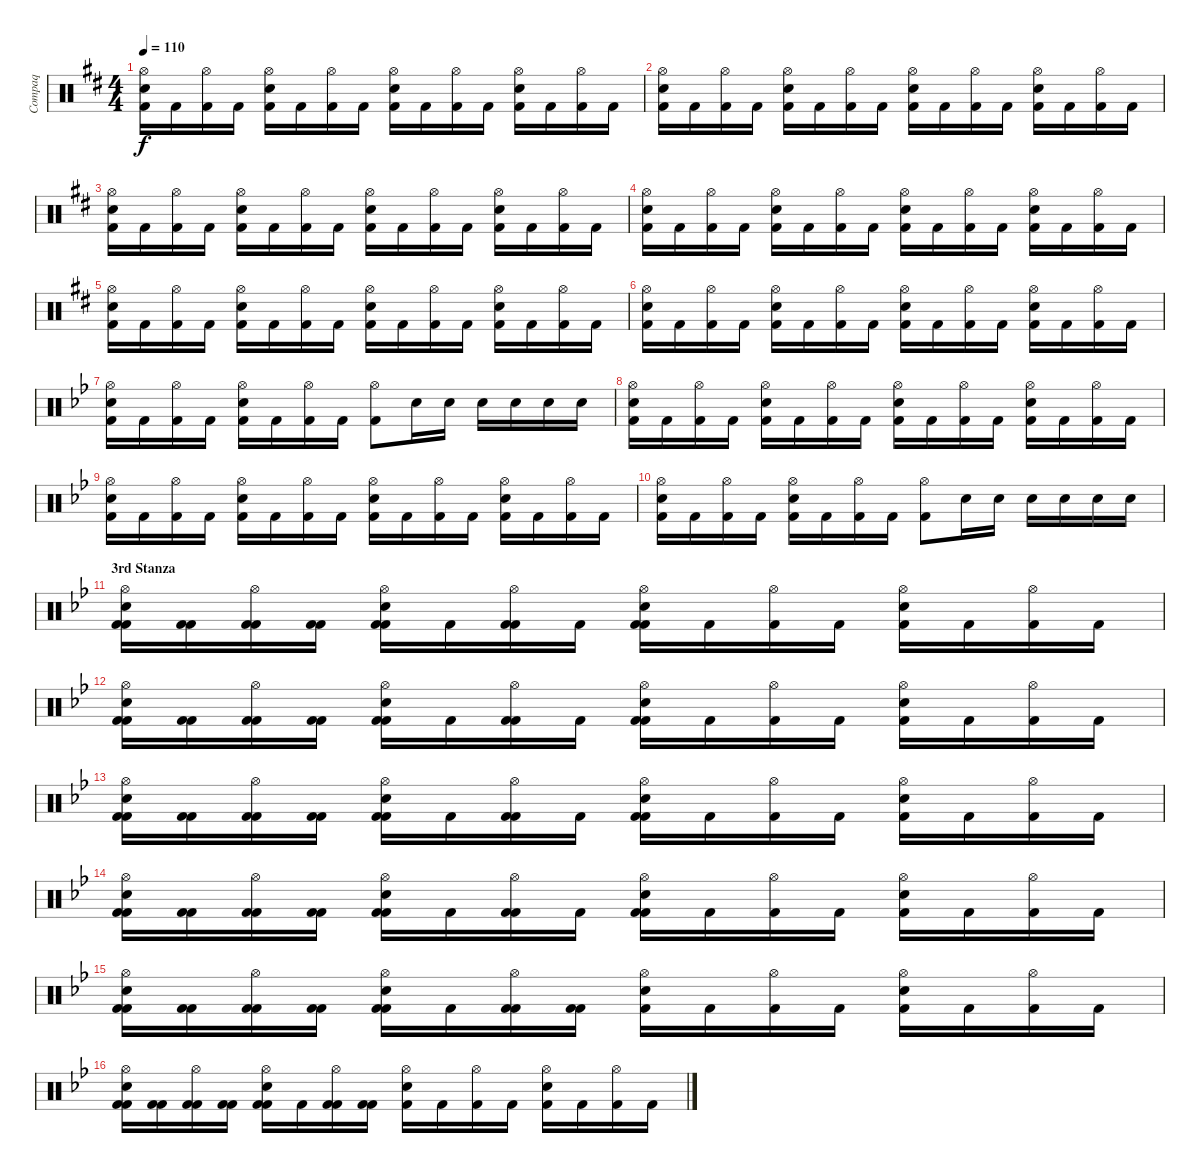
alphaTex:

\track ("Compaq" "Compaq") {instrument percussion}
\staff {score}
\articulation defaults
\ts (4 4)
\tempo 110
\clef neutral
\ks bminor
("Electric Snare (hit)" "Kick (hit) 2" "Hi-Hat (open)").16{dy f} "Kick (hit) 2".16 ("Kick (hit) 2" "Hi-Hat (open)").16 "Kick (hit) 2".16 ("Electric Snare (hit)" "Kick (hit) 2" "Hi-Hat (open)").16 "Kick (hit) 2".16 ("Kick (hit) 2" "Hi-Hat (open)").16 "Kick (hit) 2".16 ("Electric Snare (hit)" "Kick (hit) 2" "Hi-Hat (open)").16 "Kick (hit) 2".16 ("Kick (hit) 2" "Hi-Hat (open)").16 "Kick (hit) 2".16 ("Electric Snare (hit)" "Kick (hit) 2" "Hi-Hat (open)").16 "Kick (hit) 2".16 ("Kick (hit) 2" "Hi-Hat (open)").16 "Kick (hit) 2".16 |
("Electric Snare (hit)" "Kick (hit) 2" "Hi-Hat (open)").16 "Kick (hit) 2".16 ("Kick (hit) 2" "Hi-Hat (open)").16 "Kick (hit) 2".16 ("Electric Snare (hit)" "Kick (hit) 2" "Hi-Hat (open)").16 "Kick (hit) 2".16 ("Kick (hit) 2" "Hi-Hat (open)").16 "Kick (hit) 2".16 ("Electric Snare (hit)" "Kick (hit) 2" "Hi-Hat (open)").16 "Kick (hit) 2".16 ("Kick (hit) 2" "Hi-Hat (open)").16 "Kick (hit) 2".16 ("Electric Snare (hit)" "Kick (hit) 2" "Hi-Hat (open)").16 "Kick (hit) 2".16 ("Kick (hit) 2" "Hi-Hat (open)").16 "Kick (hit) 2".16 |
("Electric Snare (hit)" "Kick (hit) 2" "Hi-Hat (open)").16 "Kick (hit) 2".16 ("Kick (hit) 2" "Hi-Hat (open)").16 "Kick (hit) 2".16 ("Electric Snare (hit)" "Kick (hit) 2" "Hi-Hat (open)").16 "Kick (hit) 2".16 ("Kick (hit) 2" "Hi-Hat (open)").16 "Kick (hit) 2".16 ("Electric Snare (hit)" "Kick (hit) 2" "Hi-Hat (open)").16 "Kick (hit) 2".16 ("Kick (hit) 2" "Hi-Hat (open)").16 "Kick (hit) 2".16 ("Electric Snare (hit)" "Kick (hit) 2" "Hi-Hat (open)").16 "Kick (hit) 2".16 ("Kick (hit) 2" "Hi-Hat (open)").16 "Kick (hit) 2".16 |
("Electric Snare (hit)" "Kick (hit) 2" "Hi-Hat (open)").16 "Kick (hit) 2".16 ("Kick (hit) 2" "Hi-Hat (open)").16 "Kick (hit) 2".16 ("Electric Snare (hit)" "Kick (hit) 2" "Hi-Hat (open)").16 "Kick (hit) 2".16 ("Kick (hit) 2" "Hi-Hat (open)").16 "Kick (hit) 2".16 ("Electric Snare (hit)" "Kick (hit) 2" "Hi-Hat (open)").16 "Kick (hit) 2".16 ("Kick (hit) 2" "Hi-Hat (open)").16 "Kick (hit) 2".16 ("Electric Snare (hit)" "Kick (hit) 2" "Hi-Hat (open)").16 "Kick (hit) 2".16 ("Kick (hit) 2" "Hi-Hat (open)").16 "Kick (hit) 2".16 |
("Electric Snare (hit)" "Kick (hit) 2" "Hi-Hat (open)").16 "Kick (hit) 2".16 ("Kick (hit) 2" "Hi-Hat (open)").16 "Kick (hit) 2".16 ("Electric Snare (hit)" "Kick (hit) 2" "Hi-Hat (open)").16 "Kick (hit) 2".16 ("Kick (hit) 2" "Hi-Hat (open)").16 "Kick (hit) 2".16 ("Electric Snare (hit)" "Kick (hit) 2" "Hi-Hat (open)").16 "Kick (hit) 2".16 ("Kick (hit) 2" "Hi-Hat (open)").16 "Kick (hit) 2".16 ("Electric Snare (hit)" "Kick (hit) 2" "Hi-Hat (open)").16 "Kick (hit) 2".16 ("Kick (hit) 2" "Hi-Hat (open)").16 "Kick (hit) 2".16 |
("Electric Snare (hit)" "Kick (hit) 2" "Hi-Hat (open)").16 "Kick (hit) 2".16 ("Kick (hit) 2" "Hi-Hat (open)").16 "Kick (hit) 2".16 ("Electric Snare (hit)" "Kick (hit) 2" "Hi-Hat (open)").16 "Kick (hit) 2".16 ("Kick (hit) 2" "Hi-Hat (open)").16 "Kick (hit) 2".16 ("Electric Snare (hit)" "Kick (hit) 2" "Hi-Hat (open)").16 "Kick (hit) 2".16 ("Kick (hit) 2" "Hi-Hat (open)").16 "Kick (hit) 2".16 ("Electric Snare (hit)" "Kick (hit) 2" "Hi-Hat (open)").16 "Kick (hit) 2".16 ("Kick (hit) 2" "Hi-Hat (open)").16 "Kick (hit) 2".16 |
\ks bb
("Electric Snare (hit)" "Kick (hit) 2" "Hi-Hat (open)").16 "Kick (hit) 2".16 ("Kick (hit) 2" "Hi-Hat (open)").16 "Kick (hit) 2".16 ("Electric Snare (hit)" "Kick (hit) 2" "Hi-Hat (open)").16 "Kick (hit) 2".16 ("Kick (hit) 2" "Hi-Hat (open)").16 "Kick (hit) 2".16 ("Hi-Hat (open)" "Kick (hit) 2").8 "Electric Snare (hit)".16 "Electric Snare (hit)".16 "Electric Snare (hit)".16 "Electric Snare (hit)".16 "Electric Snare (hit)".16 "Electric Snare (hit)".16 |
("Electric Snare (hit)" "Kick (hit) 2" "Hi-Hat (open)").16 "Kick (hit) 2".16 ("Kick (hit) 2" "Hi-Hat (open)").16 "Kick (hit) 2".16 ("Electric Snare (hit)" "Kick (hit) 2" "Hi-Hat (open)").16 "Kick (hit) 2".16 ("Kick (hit) 2" "Hi-Hat (open)").16 "Kick (hit) 2".16 ("Electric Snare (hit)" "Kick (hit) 2" "Hi-Hat (open)").16 "Kick (hit) 2".16 ("Kick (hit) 2" "Hi-Hat (open)").16 "Kick (hit) 2".16 ("Electric Snare (hit)" "Kick (hit) 2" "Hi-Hat (open)").16 "Kick (hit) 2".16 ("Kick (hit) 2" "Hi-Hat (open)").16 "Kick (hit) 2".16 |
("Electric Snare (hit)" "Kick (hit) 2" "Hi-Hat (open)").16 "Kick (hit) 2".16 ("Kick (hit) 2" "Hi-Hat (open)").16 "Kick (hit) 2".16 ("Electric Snare (hit)" "Kick (hit) 2" "Hi-Hat (open)").16 "Kick (hit) 2".16 ("Kick (hit) 2" "Hi-Hat (open)").16 "Kick (hit) 2".16 ("Electric Snare (hit)" "Kick (hit) 2" "Hi-Hat (open)").16 "Kick (hit) 2".16 ("Kick (hit) 2" "Hi-Hat (open)").16 "Kick (hit) 2".16 ("Electric Snare (hit)" "Kick (hit) 2" "Hi-Hat (open)").16 "Kick (hit) 2".16 ("Kick (hit) 2" "Hi-Hat (open)").16 "Kick (hit) 2".16 |
("Electric Snare (hit)" "Kick (hit) 2" "Hi-Hat (open)").16 "Kick (hit) 2".16 ("Kick (hit) 2" "Hi-Hat (open)").16 "Kick (hit) 2".16 ("Electric Snare (hit)" "Kick (hit) 2" "Hi-Hat (open)").16 "Kick (hit) 2".16 ("Kick (hit) 2" "Hi-Hat (open)").16 "Kick (hit) 2".16 ("Hi-Hat (open)" "Kick (hit) 2").8 "Electric Snare (hit)".16 "Electric Snare (hit)".16 "Electric Snare (hit)".16 "Electric Snare (hit)".16 "Electric Snare (hit)".16 "Electric Snare (hit)".16 |
\section ("" "3rd Stanza")
("Electric Snare (hit)" "Kick (hit) 2" "Hi-Hat (open)" "Kick (hit) 2").16 ("Kick (hit) 2" "Kick (hit) 2").16 ("Kick (hit) 2" "Hi-Hat (open)" "Kick (hit) 2").16 ("Kick (hit) 2" "Kick (hit) 2").16 ("Electric Snare (hit)" "Kick (hit) 2" "Hi-Hat (open)" "Kick (hit) 2").16 "Kick (hit) 2".16 ("Kick (hit) 2" "Hi-Hat (open)" "Kick (hit) 2").16 "Kick (hit) 2".16 ("Electric Snare (hit)" "Kick (hit) 2" "Hi-Hat (open)" "Kick (hit) 2").16 "Kick (hit) 2".16 ("Kick (hit) 2" "Hi-Hat (open)").16 "Kick (hit) 2".16 ("Electric Snare (hit)" "Kick (hit) 2" "Hi-Hat (open)").16 "Kick (hit) 2".16 ("Kick (hit) 2" "Hi-Hat (open)").16 "Kick (hit) 2".16 |
("Electric Snare (hit)" "Kick (hit) 2" "Hi-Hat (open)" "Kick (hit) 2").16 ("Kick (hit) 2" "Kick (hit) 2").16 ("Kick (hit) 2" "Hi-Hat (open)" "Kick (hit) 2").16 ("Kick (hit) 2" "Kick (hit) 2").16 ("Electric Snare (hit)" "Kick (hit) 2" "Hi-Hat (open)" "Kick (hit) 2").16 "Kick (hit) 2".16 ("Kick (hit) 2" "Hi-Hat (open)" "Kick (hit) 2").16 "Kick (hit) 2".16 ("Electric Snare (hit)" "Kick (hit) 2" "Hi-Hat (open)" "Kick (hit) 2").16 "Kick (hit) 2".16 ("Kick (hit) 2" "Hi-Hat (open)").16 "Kick (hit) 2".16 ("Electric Snare (hit)" "Kick (hit) 2" "Hi-Hat (open)").16 "Kick (hit) 2".16 ("Kick (hit) 2" "Hi-Hat (open)").16 "Kick (hit) 2".16 |
("Electric Snare (hit)" "Kick (hit) 2" "Hi-Hat (open)" "Kick (hit) 2").16 ("Kick (hit) 2" "Kick (hit) 2").16 ("Kick (hit) 2" "Hi-Hat (open)" "Kick (hit) 2").16 ("Kick (hit) 2" "Kick (hit) 2").16 ("Electric Snare (hit)" "Kick (hit) 2" "Hi-Hat (open)" "Kick (hit) 2").16 "Kick (hit) 2".16 ("Kick (hit) 2" "Hi-Hat (open)" "Kick (hit) 2").16 "Kick (hit) 2".16 ("Electric Snare (hit)" "Kick (hit) 2" "Hi-Hat (open)" "Kick (hit) 2").16 "Kick (hit) 2".16 ("Kick (hit) 2" "Hi-Hat (open)").16 "Kick (hit) 2".16 ("Electric Snare (hit)" "Kick (hit) 2" "Hi-Hat (open)").16 "Kick (hit) 2".16 ("Kick (hit) 2" "Hi-Hat (open)").16 "Kick (hit) 2".16 |
("Electric Snare (hit)" "Kick (hit) 2" "Hi-Hat (open)" "Kick (hit) 2").16 ("Kick (hit) 2" "Kick (hit) 2").16 ("Kick (hit) 2" "Hi-Hat (open)" "Kick (hit) 2").16 ("Kick (hit) 2" "Kick (hit) 2").16 ("Electric Snare (hit)" "Kick (hit) 2" "Hi-Hat (open)" "Kick (hit) 2").16 "Kick (hit) 2".16 ("Kick (hit) 2" "Hi-Hat (open)" "Kick (hit) 2").16 "Kick (hit) 2".16 ("Electric Snare (hit)" "Kick (hit) 2" "Hi-Hat (open)" "Kick (hit) 2").16 "Kick (hit) 2".16 ("Kick (hit) 2" "Hi-Hat (open)").16 "Kick (hit) 2".16 ("Electric Snare (hit)" "Kick (hit) 2" "Hi-Hat (open)").16 "Kick (hit) 2".16 ("Kick (hit) 2" "Hi-Hat (open)").16 "Kick (hit) 2".16 |
("Electric Snare (hit)" "Kick (hit) 2" "Hi-Hat (open)" "Kick (hit) 2").16 ("Kick (hit) 2" "Kick (hit) 2").16 ("Kick (hit) 2" "Hi-Hat (open)" "Kick (hit) 2").16 ("Kick (hit) 2" "Kick (hit) 2").16 ("Electric Snare (hit)" "Kick (hit) 2" "Hi-Hat (open)" "Kick (hit) 2").16 "Kick (hit) 2".16 ("Kick (hit) 2" "Hi-Hat (open)" "Kick (hit) 2").16 ("Kick (hit) 2" "Kick (hit) 2").16 ("Electric Snare (hit)" "Kick (hit) 2" "Hi-Hat (open)").16 "Kick (hit) 2".16 ("Kick (hit) 2" "Hi-Hat (open)").16 "Kick (hit) 2".16 ("Electric Snare (hit)" "Kick (hit) 2" "Hi-Hat (open)").16 "Kick (hit) 2".16 ("Kick (hit) 2" "Hi-Hat (open)").16 "Kick (hit) 2".16 |
("Electric Snare (hit)" "Kick (hit) 2" "Hi-Hat (open)" "Kick (hit) 2").16 ("Kick (hit) 2" "Kick (hit) 2").16 ("Kick (hit) 2" "Hi-Hat (open)" "Kick (hit) 2").16 ("Kick (hit) 2" "Kick (hit) 2").16 ("Electric Snare (hit)" "Kick (hit) 2" "Hi-Hat (open)" "Kick (hit) 2").16 "Kick (hit) 2".16 ("Kick (hit) 2" "Hi-Hat (open)" "Kick (hit) 2").16 ("Kick (hit) 2" "Kick (hit) 2").16 ("Electric Snare (hit)" "Kick (hit) 2" "Hi-Hat (open)").16 "Kick (hit) 2".16 ("Kick (hit) 2" "Hi-Hat (open)").16 "Kick (hit) 2".16 ("Electric Snare (hit)" "Kick (hit) 2" "Hi-Hat (open)").16 "Kick (hit) 2".16 ("Kick (hit) 2" "Hi-Hat (open)").16 "Kick (hit) 2".16
